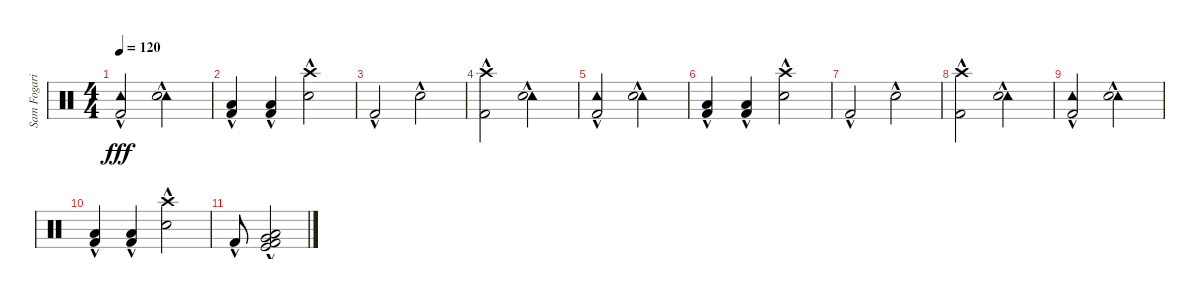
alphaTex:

\track ("Sam Fogarino" "Sam Fogari") {instrument percussion}
\staff {score}
\articulation defaults
\ts (4 4)
\tempo 120
\clef neutral
\ks c
("Tambourine (hit)"{hac} "Kick (hit) 2"{hac}).2{dy fff} ("Tambourine (hit)"{hac} "Snare (hit) 2"{hac}).2 |
("Kick (hit) 2"{hac} "Low Floor Tom (hit)"{hac}).4 ("Kick (hit) 2"{hac} "Low Floor Tom (hit)"{hac}).4 ("Crash high (hit)"{hac} "Snare (hit) 2"{hac}).2 |
"Kick (hit) 2"{hac}.2 "Snare (hit) 2"{hac}.2 |
("Crash high (hit)" "Kick (hit) 2"{hac}).2 ("Tambourine (hit)" "Snare (hit) 2"{hac}).2 |
("Tambourine (hit)"{hac} "Kick (hit) 2"{hac}).2 ("Tambourine (hit)"{hac} "Snare (hit) 2"{hac}).2 |
("Kick (hit) 2"{hac} "Low Floor Tom (hit)").4 ("Kick (hit) 2"{hac} "Low Floor Tom (hit)").4 ("Crash high (hit)"{hac} "Snare (hit) 2"{hac}).2 |
"Kick (hit) 2"{hac}.2 "Snare (hit) 2"{hac}.2 |
("Crash high (hit)" "Kick (hit) 2"{hac}).2 ("Tambourine (hit)" "Snare (hit) 2"{hac}).2 |
("Tambourine (hit)"{hac} "Kick (hit) 2"{hac}).2 ("Tambourine (hit)"{hac} "Snare (hit) 2"{hac}).2 |
("Kick (hit) 2"{hac} "Low Floor Tom (hit)").4 ("Kick (hit) 2"{hac} "Low Floor Tom (hit)").4 ("Crash high (hit)"{hac} "Snare (hit) 2"{hac}).2 |
"Kick (hit) 2"{hac}.8 ("Kick (hit) 2"{hac} "Low Floor Tom (hit)"{hac} "Kick (hit)"{hac} "Very Low Tom (hit)"{hac}).2
